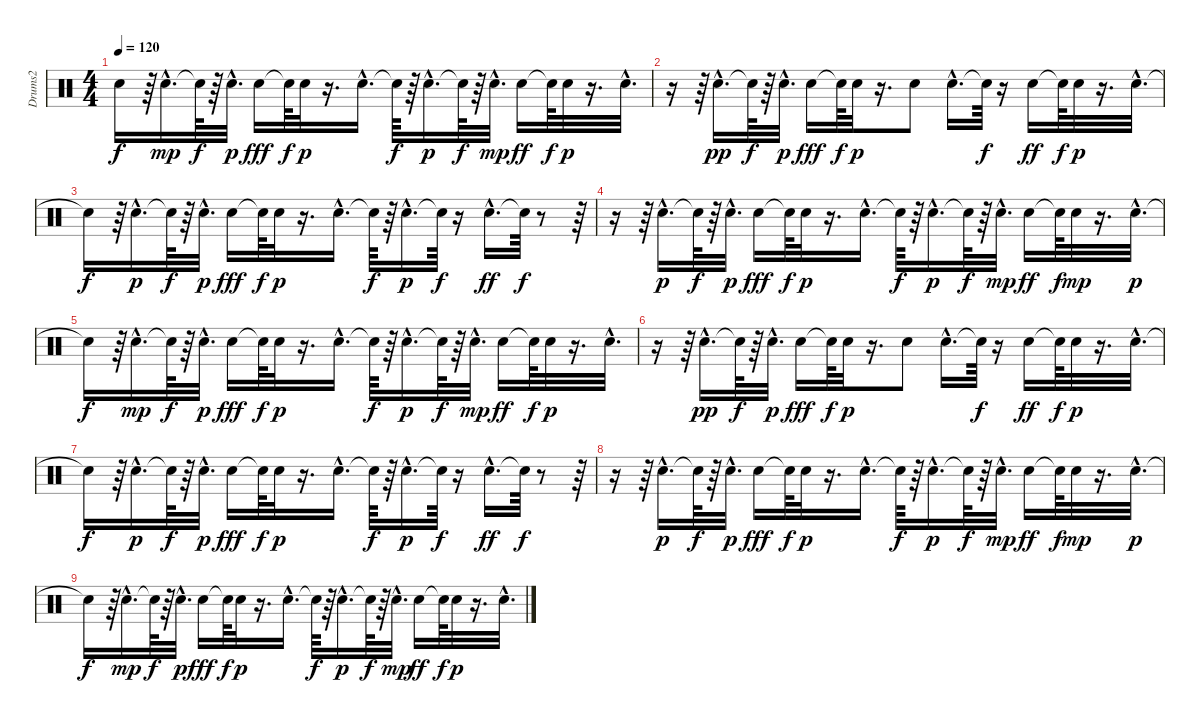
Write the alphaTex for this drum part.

\track ("Drums2" "Drums2") {instrument percussion}
\staff {score}
\articulation defaults
\ts (4 4)
\tempo 120
\clef neutral
\ks c "Snare (hit)"{t}.16{dy f}
r.64 "Electric Snare (hit)"{hac}.16{d dy mp} "Snare (hit)"{t}.64{dy f} r.64 "Electric Snare (hit)"{hac}.32{d dy p} "Electric Snare (hit)".16{dy fff} "Snare (hit)"{t}.64{dy f} "Electric Snare (hit)".32{dy p} r.16{d} "Electric Snare (hit)"{hac}.16{d} "Snare (hit)"{t}.64{dy f} r.64 "Electric Snare (hit)"{hac}.16{d dy p} "Snare (hit)"{t}.64{dy f} r.64 "Electric Snare (hit)"{hac}.32{d dy mp} "Electric Snare (hit)".16{dy ff} "Snare (hit)"{t}.64{dy f} "Electric Snare (hit)".32{dy p} r.16{d} "Electric Snare (hit)"{hac}.32{d} |
r.16 r.64 "Electric Snare (hit)"{hac}.16{d dy pp} "Snare (hit)"{t}.64{dy f} r.64 "Electric Snare (hit)"{hac}.32{d dy p} "Electric Snare (hit)".16{dy fff} "Snare (hit)"{t}.64{dy f} "Electric Snare (hit)".32{dy p} r.16{d} "Electric Snare (hit)".8 "Electric Snare (hit)"{hac}.16{d} "Snare (hit)"{t}.64{dy f} r.16 "Electric Snare (hit)".16{dy ff} "Snare (hit)"{t}.64{dy f} "Electric Snare (hit)".32{dy p} r.16{d} "Electric Snare (hit)"{hac}.32{d} |
"Snare (hit)"{t}.16{dy f} r.64 "Electric Snare (hit)"{hac}.16{d dy p} "Snare (hit)"{t}.64{dy f} r.64 "Electric Snare (hit)"{hac}.32{d dy p} "Electric Snare (hit)".16{dy fff} "Snare (hit)"{t}.64{dy f} "Electric Snare (hit)".32{dy p} r.16{d} "Electric Snare (hit)"{hac}.16{d} "Snare (hit)"{t}.64{dy f} r.64 "Electric Snare (hit)"{hac}.16{d dy p} "Snare (hit)"{t}.64{dy f} r.16 "Electric Snare (hit)"{hac}.16{d dy ff} "Snare (hit)"{t}.64{dy f} r.8 r.64 |
r.16 r.64 "Electric Snare (hit)"{hac}.16{d dy p} "Snare (hit)"{t}.64{dy f} r.64 "Electric Snare (hit)"{hac}.32{d dy p} "Electric Snare (hit)".16{dy fff} "Snare (hit)"{t}.64{dy f} "Electric Snare (hit)".32{dy p} r.16{d} "Electric Snare (hit)"{hac}.16{d} "Snare (hit)"{t}.64{dy f} r.64 "Electric Snare (hit)"{hac}.16{d dy p} "Snare (hit)"{t}.64{dy f} r.64 "Electric Snare (hit)"{hac}.32{d dy mp} "Electric Snare (hit)".16{dy ff} "Snare (hit)"{t}.64{dy f} "Electric Snare (hit)".32{dy mp} r.16{d} "Electric Snare (hit)"{hac}.32{d dy p} |
"Snare (hit)"{t}.16{dy f} r.64 "Electric Snare (hit)"{hac}.16{d dy mp} "Snare (hit)"{t}.64{dy f} r.64 "Electric Snare (hit)"{hac}.32{d dy p} "Electric Snare (hit)".16{dy fff} "Snare (hit)"{t}.64{dy f} "Electric Snare (hit)".32{dy p} r.16{d} "Electric Snare (hit)"{hac}.16{d} "Snare (hit)"{t}.64{dy f} r.64 "Electric Snare (hit)"{hac}.16{d dy p} "Snare (hit)"{t}.64{dy f} r.64 "Electric Snare (hit)"{hac}.32{d dy mp} "Electric Snare (hit)".16{dy ff} "Snare (hit)"{t}.64{dy f} "Electric Snare (hit)".32{dy p} r.16{d} "Electric Snare (hit)"{hac}.32{d} |
r.16 r.64 "Electric Snare (hit)"{hac}.16{d dy pp} "Snare (hit)"{t}.64{dy f} r.64 "Electric Snare (hit)"{hac}.32{d dy p} "Electric Snare (hit)".16{dy fff} "Snare (hit)"{t}.64{dy f} "Electric Snare (hit)".32{dy p} r.16{d} "Electric Snare (hit)".8 "Electric Snare (hit)"{hac}.16{d} "Snare (hit)"{t}.64{dy f} r.16 "Electric Snare (hit)".16{dy ff} "Snare (hit)"{t}.64{dy f} "Electric Snare (hit)".32{dy p} r.16{d} "Electric Snare (hit)"{hac}.32{d} |
"Snare (hit)"{t}.16{dy f} r.64 "Electric Snare (hit)"{hac}.16{d dy p} "Snare (hit)"{t}.64{dy f} r.64 "Electric Snare (hit)"{hac}.32{d dy p} "Electric Snare (hit)".16{dy fff} "Snare (hit)"{t}.64{dy f} "Electric Snare (hit)".32{dy p} r.16{d} "Electric Snare (hit)"{hac}.16{d} "Snare (hit)"{t}.64{dy f} r.64 "Electric Snare (hit)"{hac}.16{d dy p} "Snare (hit)"{t}.64{dy f} r.16 "Electric Snare (hit)"{hac}.16{d dy ff} "Snare (hit)"{t}.64{dy f} r.8 r.64 |
r.16 r.64 "Electric Snare (hit)"{hac}.16{d dy p} "Snare (hit)"{t}.64{dy f} r.64 "Electric Snare (hit)"{hac}.32{d dy p} "Electric Snare (hit)".16{dy fff} "Snare (hit)"{t}.64{dy f} "Electric Snare (hit)".32{dy p} r.16{d} "Electric Snare (hit)"{hac}.16{d} "Snare (hit)"{t}.64{dy f} r.64 "Electric Snare (hit)"{hac}.16{d dy p} "Snare (hit)"{t}.64{dy f} r.64 "Electric Snare (hit)"{hac}.32{d dy mp} "Electric Snare (hit)".16{dy ff} "Snare (hit)"{t}.64{dy f} "Electric Snare (hit)".32{dy mp} r.16{d} "Electric Snare (hit)"{hac}.32{d dy p} |
"Snare (hit)"{t}.16{dy f} r.64 "Electric Snare (hit)"{hac}.16{d dy mp} "Snare (hit)"{t}.64{dy f} r.64 "Electric Snare (hit)"{hac}.32{d dy p} "Electric Snare (hit)".16{dy fff} "Snare (hit)"{t}.64{dy f} "Electric Snare (hit)".32{dy p} r.16{d} "Electric Snare (hit)"{hac}.16{d} "Snare (hit)"{t}.64{dy f} r.64 "Electric Snare (hit)"{hac}.16{d dy p} "Snare (hit)"{t}.64{dy f} r.64 "Electric Snare (hit)"{hac}.32{d dy mp} "Electric Snare (hit)".16{dy ff} "Snare (hit)"{t}.64{dy f} "Electric Snare (hit)".32{dy p} r.16{d} "Electric Snare (hit)"{hac}.32{d}
